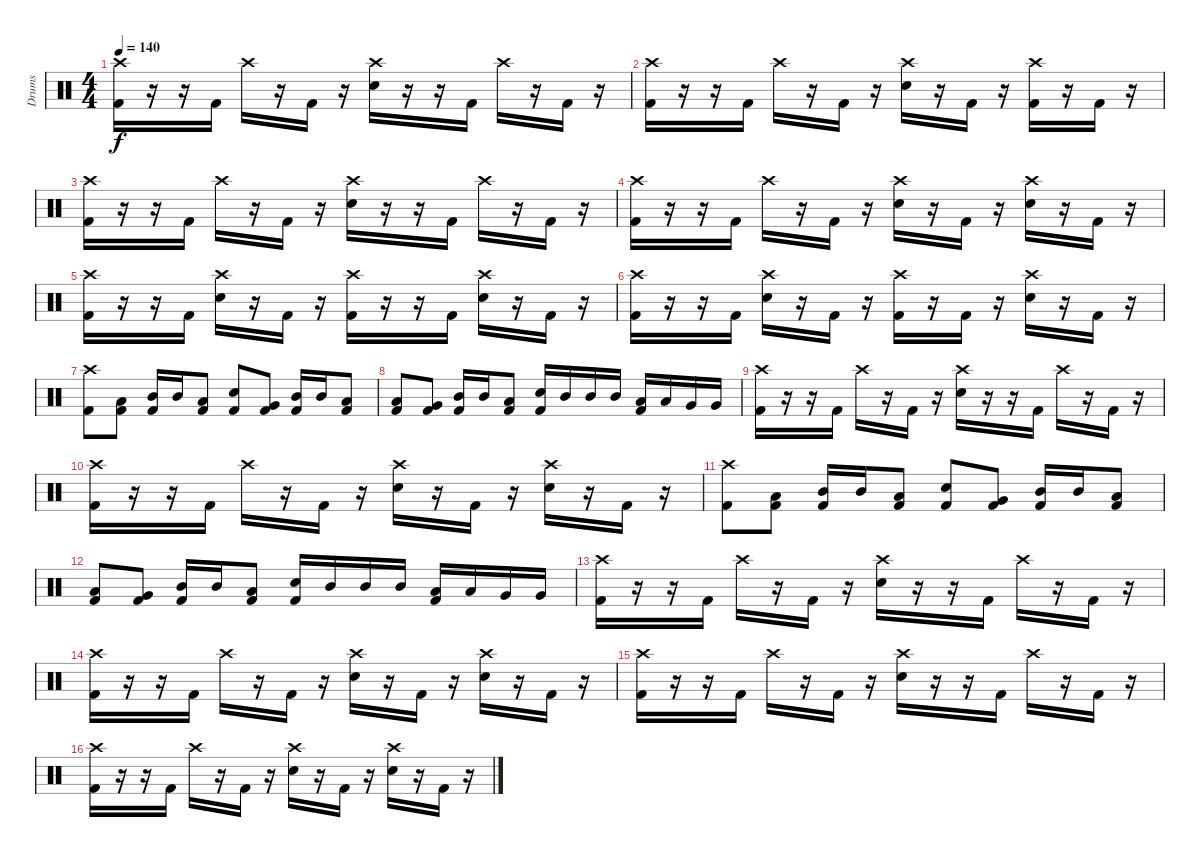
\track ("Drums" "Drums") {instrument percussion}
\staff {score}
\articulation defaults
\ts (4 4)
\tempo 140
\clef neutral
\ks c
("Crash high (hit)" "Kick (hit) 2").16{dy f} r.16 r.16 "Kick (hit) 2".16 "Crash high (hit)".16 r.16 "Kick (hit) 2".16 r.16 ("Crash high (hit)" "Snare (hit) 2").16 r.16 r.16 "Kick (hit) 2".16 "Crash high (hit)".16 r.16 "Kick (hit) 2".16 r.16 |
("Crash high (hit)" "Kick (hit) 2").16 r.16 r.16 "Kick (hit) 2".16 "Crash high (hit)".16 r.16 "Kick (hit) 2".16 r.16 ("Crash high (hit)" "Snare (hit) 2").16 r.16 "Kick (hit) 2".16 r.16 ("Crash high (hit)" "Kick (hit) 2").16 r.16 "Kick (hit) 2".16 r.16 |
("Crash high (hit)" "Kick (hit) 2").16 r.16 r.16 "Kick (hit) 2".16 "Crash high (hit)".16 r.16 "Kick (hit) 2".16 r.16 ("Crash high (hit)" "Snare (hit) 2").16 r.16 r.16 "Kick (hit) 2".16 "Crash high (hit)".16 r.16 "Kick (hit) 2".16 r.16 |
("Crash high (hit)" "Kick (hit) 2").16 r.16 r.16 "Kick (hit) 2".16 "Crash high (hit)".16 r.16 "Kick (hit) 2".16 r.16 ("Crash high (hit)" "Snare (hit) 2").16 r.16 "Kick (hit) 2".16 r.16 ("Crash high (hit)" "Snare (hit) 2").16 r.16 "Kick (hit) 2".16 r.16 |
("Crash high (hit)" "Kick (hit) 2").16 r.16 r.16 "Kick (hit) 2".16 ("Crash high (hit)" "Snare (hit) 2").16 r.16 "Kick (hit) 2".16 r.16 ("Crash high (hit)" "Kick (hit) 2").16 r.16 r.16 "Kick (hit) 2".16 ("Crash high (hit)" "Snare (hit) 2").16 r.16 "Kick (hit) 2".16 r.16 |
("Crash high (hit)" "Kick (hit) 2").16 r.16 r.16 "Kick (hit) 2".16 ("Crash high (hit)" "Snare (hit) 2").16 r.16 "Kick (hit) 2".16 r.16 ("Crash high (hit)" "Kick (hit) 2").16 r.16 "Kick (hit) 2".16 r.16 ("Crash high (hit)" "Snare (hit) 2").16 r.16 "Kick (hit) 2".16 r.16 |
("Crash high (hit)" "Kick (hit) 2").8 ("Low Floor Tom (hit)" "Kick (hit) 2").8 ("Mid Tom (hit)" "Kick (hit) 2").16 "Mid Tom (hit)".16 ("Low Tom (hit)" "Kick (hit) 2").8 ("Snare (hit) 2" "Kick (hit) 2").8 ("Very Low Tom (hit)" "Kick (hit) 2").8 ("Mid Tom (hit)" "Kick (hit) 2").16 "Mid Tom (hit)".16 ("Low Tom (hit)" "Kick (hit) 2").8 |
("Low Floor Tom (hit)" "Kick (hit) 2").8 ("Very Low Tom (hit)" "Kick (hit) 2").8 ("Mid Tom (hit)" "Kick (hit) 2").16 "Mid Tom (hit)".16 ("Low Tom (hit)" "Kick (hit) 2").8 ("Snare (hit) 2" "Kick (hit) 2").16 "Mid Tom (hit)".16 "Mid Tom (hit)".16 "Mid Tom (hit)".16 ("Low Tom (hit)" "Kick (hit) 2").16 "Low Tom (hit)".16 "Very Low Tom (hit)".16 "Very Low Tom (hit)".16 |
("Crash high (hit)" "Kick (hit) 2").16 r.16 r.16 "Kick (hit) 2".16 "Crash high (hit)".16 r.16 "Kick (hit) 2".16 r.16 ("Crash high (hit)" "Snare (hit) 2").16 r.16 r.16 "Kick (hit) 2".16 "Crash high (hit)".16 r.16 "Kick (hit) 2".16 r.16 |
("Crash high (hit)" "Kick (hit) 2").16 r.16 r.16 "Kick (hit) 2".16 "Crash high (hit)".16 r.16 "Kick (hit) 2".16 r.16 ("Crash high (hit)" "Snare (hit) 2").16 r.16 "Kick (hit) 2".16 r.16 ("Crash high (hit)" "Snare (hit) 2").16 r.16 "Kick (hit) 2".16 r.16 |
("Crash high (hit)" "Kick (hit) 2").8 ("Low Floor Tom (hit)" "Kick (hit) 2").8 ("Mid Tom (hit)" "Kick (hit) 2").16 "Mid Tom (hit)".16 ("Low Tom (hit)" "Kick (hit) 2").8 ("Snare (hit) 2" "Kick (hit) 2").8 ("Very Low Tom (hit)" "Kick (hit) 2").8 ("Mid Tom (hit)" "Kick (hit) 2").16 "Mid Tom (hit)".16 ("Low Tom (hit)" "Kick (hit) 2").8 |
("Low Floor Tom (hit)" "Kick (hit) 2").8 ("Very Low Tom (hit)" "Kick (hit) 2").8 ("Mid Tom (hit)" "Kick (hit) 2").16 "Mid Tom (hit)".16 ("Low Tom (hit)" "Kick (hit) 2").8 ("Snare (hit) 2" "Kick (hit) 2").16 "Mid Tom (hit)".16 "Mid Tom (hit)".16 "Mid Tom (hit)".16 ("Low Tom (hit)" "Kick (hit) 2").16 "Low Tom (hit)".16 "Very Low Tom (hit)".16 "Very Low Tom (hit)".16 |
("Crash high (hit)" "Kick (hit) 2").16 r.16 r.16 "Kick (hit) 2".16 "Crash high (hit)".16 r.16 "Kick (hit) 2".16 r.16 ("Crash high (hit)" "Snare (hit) 2").16 r.16 r.16 "Kick (hit) 2".16 "Crash high (hit)".16 r.16 "Kick (hit) 2".16 r.16 |
("Crash high (hit)" "Kick (hit) 2").16 r.16 r.16 "Kick (hit) 2".16 "Crash high (hit)".16 r.16 "Kick (hit) 2".16 r.16 ("Crash high (hit)" "Snare (hit) 2").16 r.16 "Kick (hit) 2".16 r.16 ("Crash high (hit)" "Snare (hit) 2").16 r.16 "Kick (hit) 2".16 r.16 |
("Crash high (hit)" "Kick (hit) 2").16 r.16 r.16 "Kick (hit) 2".16 "Crash high (hit)".16 r.16 "Kick (hit) 2".16 r.16 ("Crash high (hit)" "Snare (hit) 2").16 r.16 r.16 "Kick (hit) 2".16 "Crash high (hit)".16 r.16 "Kick (hit) 2".16 r.16 |
("Crash high (hit)" "Kick (hit) 2").16 r.16 r.16 "Kick (hit) 2".16 "Crash high (hit)".16 r.16 "Kick (hit) 2".16 r.16 ("Crash high (hit)" "Snare (hit) 2").16 r.16 "Kick (hit) 2".16 r.16 ("Crash high (hit)" "Snare (hit) 2").16 r.16 "Kick (hit) 2".16 r.16
